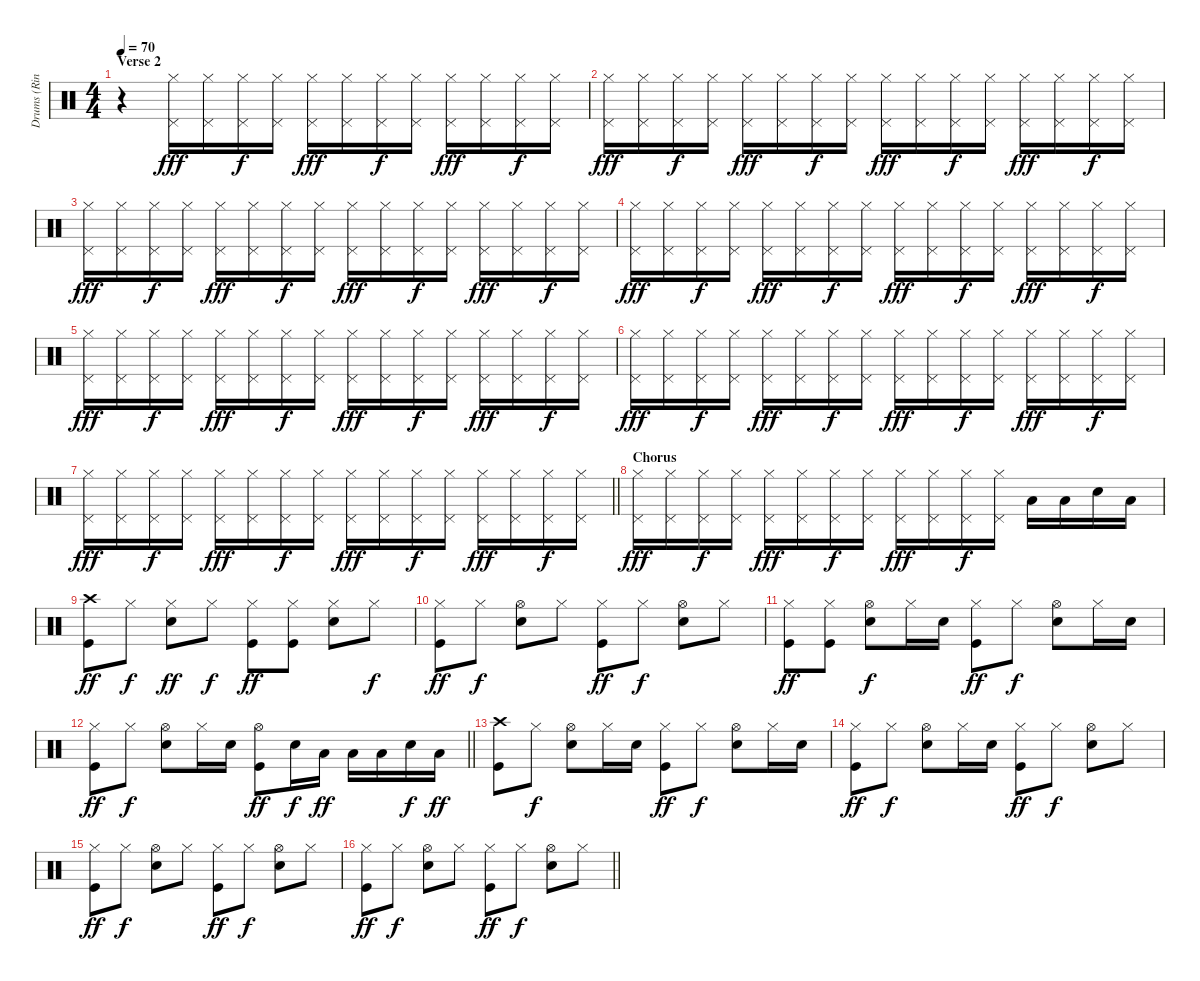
\track ("Drums (Ringo Starr)" "Drums (Rin") {instrument percussion}
\staff {score}
\articulation defaults
\ts (4 4)
\section ("" "Verse 2")
\tempo 70
\clef neutral
\ks c
r.4{dy fff} ("Pedal Hi-Hat (hit)" "Hi-Hat (closed)").16{volume 16} ("Pedal Hi-Hat (hit)" "Hi-Hat (closed)").16{volume 11} ("Hi-Hat (closed)" "Pedal Hi-Hat (hit)").16{dy f volume 6} ("Hi-Hat (closed)" "Pedal Hi-Hat (hit)").16{volume 5} ("Pedal Hi-Hat (hit)" "Hi-Hat (closed)").16{dy fff} ("Pedal Hi-Hat (hit)" "Hi-Hat (closed)").16 ("Hi-Hat (closed)" "Pedal Hi-Hat (hit)").16{dy f} ("Hi-Hat (closed)" "Pedal Hi-Hat (hit)").16 ("Pedal Hi-Hat (hit)" "Hi-Hat (closed)").16{dy fff volume 16} ("Pedal Hi-Hat (hit)" "Hi-Hat (closed)").16{volume 11} ("Hi-Hat (closed)" "Pedal Hi-Hat (hit)").16{dy f volume 6} ("Hi-Hat (closed)" "Pedal Hi-Hat (hit)").16{volume 5} |
("Pedal Hi-Hat (hit)" "Hi-Hat (closed)").16{dy fff} ("Pedal Hi-Hat (hit)" "Hi-Hat (closed)").16 ("Hi-Hat (closed)" "Pedal Hi-Hat (hit)").16{dy f} ("Hi-Hat (closed)" "Pedal Hi-Hat (hit)").16 ("Pedal Hi-Hat (hit)" "Hi-Hat (closed)").16{dy fff volume 16} ("Pedal Hi-Hat (hit)" "Hi-Hat (closed)").16{volume 11} ("Hi-Hat (closed)" "Pedal Hi-Hat (hit)").16{dy f volume 6} ("Hi-Hat (closed)" "Pedal Hi-Hat (hit)").16{volume 5} ("Pedal Hi-Hat (hit)" "Hi-Hat (closed)").16{dy fff} ("Pedal Hi-Hat (hit)" "Hi-Hat (closed)").16 ("Hi-Hat (closed)" "Pedal Hi-Hat (hit)").16{dy f} ("Hi-Hat (closed)" "Pedal Hi-Hat (hit)").16 ("Pedal Hi-Hat (hit)" "Hi-Hat (closed)").16{dy fff volume 16} ("Pedal Hi-Hat (hit)" "Hi-Hat (closed)").16{volume 11} ("Hi-Hat (closed)" "Pedal Hi-Hat (hit)").16{dy f volume 6} ("Hi-Hat (closed)" "Pedal Hi-Hat (hit)").16{volume 5} |
("Pedal Hi-Hat (hit)" "Hi-Hat (closed)").16{dy fff} ("Pedal Hi-Hat (hit)" "Hi-Hat (closed)").16 ("Hi-Hat (closed)" "Pedal Hi-Hat (hit)").16{dy f} ("Hi-Hat (closed)" "Pedal Hi-Hat (hit)").16 ("Pedal Hi-Hat (hit)" "Hi-Hat (closed)").16{dy fff volume 16} ("Pedal Hi-Hat (hit)" "Hi-Hat (closed)").16{volume 11} ("Hi-Hat (closed)" "Pedal Hi-Hat (hit)").16{dy f volume 6} ("Hi-Hat (closed)" "Pedal Hi-Hat (hit)").16{volume 5} ("Pedal Hi-Hat (hit)" "Hi-Hat (closed)").16{dy fff} ("Pedal Hi-Hat (hit)" "Hi-Hat (closed)").16 ("Hi-Hat (closed)" "Pedal Hi-Hat (hit)").16{dy f} ("Hi-Hat (closed)" "Pedal Hi-Hat (hit)").16 ("Pedal Hi-Hat (hit)" "Hi-Hat (closed)").16{dy fff volume 16} ("Pedal Hi-Hat (hit)" "Hi-Hat (closed)").16{volume 11} ("Hi-Hat (closed)" "Pedal Hi-Hat (hit)").16{dy f volume 6} ("Hi-Hat (closed)" "Pedal Hi-Hat (hit)").16{volume 5} |
("Pedal Hi-Hat (hit)" "Hi-Hat (closed)").16{dy fff} ("Pedal Hi-Hat (hit)" "Hi-Hat (closed)").16 ("Hi-Hat (closed)" "Pedal Hi-Hat (hit)").16{dy f} ("Hi-Hat (closed)" "Pedal Hi-Hat (hit)").16 ("Pedal Hi-Hat (hit)" "Hi-Hat (closed)").16{dy fff volume 16} ("Pedal Hi-Hat (hit)" "Hi-Hat (closed)").16{volume 11} ("Hi-Hat (closed)" "Pedal Hi-Hat (hit)").16{dy f volume 6} ("Hi-Hat (closed)" "Pedal Hi-Hat (hit)").16{volume 5} ("Pedal Hi-Hat (hit)" "Hi-Hat (closed)").16{dy fff} ("Pedal Hi-Hat (hit)" "Hi-Hat (closed)").16 ("Hi-Hat (closed)" "Pedal Hi-Hat (hit)").16{dy f} ("Hi-Hat (closed)" "Pedal Hi-Hat (hit)").16 ("Pedal Hi-Hat (hit)" "Hi-Hat (closed)").16{dy fff volume 16} ("Pedal Hi-Hat (hit)" "Hi-Hat (closed)").16{volume 11} ("Hi-Hat (closed)" "Pedal Hi-Hat (hit)").16{dy f volume 6} ("Hi-Hat (closed)" "Pedal Hi-Hat (hit)").16{volume 5} |
("Pedal Hi-Hat (hit)" "Hi-Hat (closed)").16{dy fff} ("Pedal Hi-Hat (hit)" "Hi-Hat (closed)").16 ("Hi-Hat (closed)" "Pedal Hi-Hat (hit)").16{dy f} ("Hi-Hat (closed)" "Pedal Hi-Hat (hit)").16 ("Pedal Hi-Hat (hit)" "Hi-Hat (closed)").16{dy fff volume 16} ("Pedal Hi-Hat (hit)" "Hi-Hat (closed)").16{volume 11} ("Hi-Hat (closed)" "Pedal Hi-Hat (hit)").16{dy f volume 6} ("Hi-Hat (closed)" "Pedal Hi-Hat (hit)").16{volume 5} ("Pedal Hi-Hat (hit)" "Hi-Hat (closed)").16{dy fff} ("Pedal Hi-Hat (hit)" "Hi-Hat (closed)").16 ("Hi-Hat (closed)" "Pedal Hi-Hat (hit)").16{dy f} ("Hi-Hat (closed)" "Pedal Hi-Hat (hit)").16 ("Pedal Hi-Hat (hit)" "Hi-Hat (closed)").16{dy fff volume 16} ("Pedal Hi-Hat (hit)" "Hi-Hat (closed)").16{volume 11} ("Hi-Hat (closed)" "Pedal Hi-Hat (hit)").16{dy f volume 6} ("Hi-Hat (closed)" "Pedal Hi-Hat (hit)").16{volume 5} |
("Pedal Hi-Hat (hit)" "Hi-Hat (closed)").16{dy fff} ("Pedal Hi-Hat (hit)" "Hi-Hat (closed)").16 ("Hi-Hat (closed)" "Pedal Hi-Hat (hit)").16{dy f} ("Hi-Hat (closed)" "Pedal Hi-Hat (hit)").16 ("Pedal Hi-Hat (hit)" "Hi-Hat (closed)").16{dy fff volume 16} ("Pedal Hi-Hat (hit)" "Hi-Hat (closed)").16{volume 11} ("Hi-Hat (closed)" "Pedal Hi-Hat (hit)").16{dy f volume 6} ("Hi-Hat (closed)" "Pedal Hi-Hat (hit)").16{volume 5} ("Pedal Hi-Hat (hit)" "Hi-Hat (closed)").16{dy fff} ("Pedal Hi-Hat (hit)" "Hi-Hat (closed)").16 ("Hi-Hat (closed)" "Pedal Hi-Hat (hit)").16{dy f} ("Hi-Hat (closed)" "Pedal Hi-Hat (hit)").16 ("Pedal Hi-Hat (hit)" "Hi-Hat (closed)").16{dy fff volume 16} ("Pedal Hi-Hat (hit)" "Hi-Hat (closed)").16{volume 11} ("Hi-Hat (closed)" "Pedal Hi-Hat (hit)").16{dy f volume 6} ("Hi-Hat (closed)" "Pedal Hi-Hat (hit)").16{volume 5} |
\barLineRight lightlight
("Pedal Hi-Hat (hit)" "Hi-Hat (closed)").16{dy fff} ("Pedal Hi-Hat (hit)" "Hi-Hat (closed)").16 ("Hi-Hat (closed)" "Pedal Hi-Hat (hit)").16{dy f} ("Hi-Hat (closed)" "Pedal Hi-Hat (hit)").16 ("Pedal Hi-Hat (hit)" "Hi-Hat (closed)").16{dy fff volume 16} ("Pedal Hi-Hat (hit)" "Hi-Hat (closed)").16{volume 11} ("Hi-Hat (closed)" "Pedal Hi-Hat (hit)").16{dy f volume 6} ("Hi-Hat (closed)" "Pedal Hi-Hat (hit)").16{volume 5} ("Pedal Hi-Hat (hit)" "Hi-Hat (closed)").16{dy fff} ("Pedal Hi-Hat (hit)" "Hi-Hat (closed)").16 ("Hi-Hat (closed)" "Pedal Hi-Hat (hit)").16{dy f} ("Hi-Hat (closed)" "Pedal Hi-Hat (hit)").16 ("Pedal Hi-Hat (hit)" "Hi-Hat (closed)").16{dy fff volume 16} ("Pedal Hi-Hat (hit)" "Hi-Hat (closed)").16{volume 11} ("Hi-Hat (closed)" "Pedal Hi-Hat (hit)").16{dy f volume 6} ("Hi-Hat (closed)" "Pedal Hi-Hat (hit)").16{volume 5} |
\section ("" "Chorus")
("Pedal Hi-Hat (hit)" "Hi-Hat (closed)").16{dy fff} ("Pedal Hi-Hat (hit)" "Hi-Hat (closed)").16 ("Hi-Hat (closed)" "Pedal Hi-Hat (hit)").16{dy f} ("Hi-Hat (closed)" "Pedal Hi-Hat (hit)").16 ("Pedal Hi-Hat (hit)" "Hi-Hat (closed)").16{dy fff volume 16} ("Pedal Hi-Hat (hit)" "Hi-Hat (closed)").16{volume 11} ("Hi-Hat (closed)" "Pedal Hi-Hat (hit)").16{dy f volume 6} ("Hi-Hat (closed)" "Pedal Hi-Hat (hit)").16{volume 5} ("Pedal Hi-Hat (hit)" "Hi-Hat (closed)").16{dy fff} ("Pedal Hi-Hat (hit)" "Hi-Hat (closed)").16 ("Hi-Hat (closed)" "Pedal Hi-Hat (hit)").16{dy f} ("Hi-Hat (closed)" "Pedal Hi-Hat (hit)").16 "Low Tom (hit)".16{volume 16} "Low Tom (hit)".16 "Snare (hit) 2".16 "Low Tom (hit)".16 |
("Kick (hit)" "Crash high (hit)").8{dy ff} "Hi-Hat (closed)".8{dy f} ("Hi-Hat (closed)" "Snare (hit) 2").8{dy ff} "Hi-Hat (closed)".8{dy f} ("Hi-Hat (closed)" "Kick (hit)").8{dy ff} ("Hi-Hat (closed)" "Kick (hit)").8 ("Hi-Hat (closed)" "Snare (hit) 2").8 "Hi-Hat (closed)".8{dy f} |
("Hi-Hat (closed)" "Kick (hit)").8{dy ff} "Hi-Hat (closed)".8{dy f} ("Hi-Hat (open)" "Snare (hit) 2").8 "Hi-Hat (closed)".8 ("Hi-Hat (closed)" "Kick (hit)").8{dy ff} "Hi-Hat (closed)".8{dy f} ("Hi-Hat (open)" "Snare (hit) 2").8 "Hi-Hat (closed)".8 |
("Hi-Hat (closed)" "Kick (hit)").8{dy ff} ("Hi-Hat (closed)" "Kick (hit)").8 ("Hi-Hat (open)" "Snare (hit) 2").8{dy f} "Hi-Hat (closed)".16 "Snare (hit) 2".16 ("Hi-Hat (closed)" "Kick (hit)").8{dy ff} "Hi-Hat (closed)".8{dy f} ("Hi-Hat (open)" "Snare (hit) 2").8 "Hi-Hat (closed)".16 "Snare (hit) 2".16 |
\barLineRight lightlight
("Hi-Hat (closed)" "Kick (hit)").8{dy ff} "Hi-Hat (closed)".8{dy f} ("Hi-Hat (open)" "Snare (hit) 2").8 "Hi-Hat (closed)".16 "Snare (hit) 2".16 ("Hi-Hat (open)" "Kick (hit)").8{dy ff} "Snare (hit) 2".16{dy f} "Low Tom (hit)".16{dy ff} "Low Tom (hit)".16 "Low Tom (hit)".16 "Snare (hit) 2".16{dy f} "Low Tom (hit)".16{dy ff} |
("Kick (hit)" "Crash high (hit)").8 "Hi-Hat (closed)".8{dy f} ("Hi-Hat (open)" "Snare (hit) 2").8 "Hi-Hat (closed)".16 "Snare (hit) 2".16 ("Hi-Hat (closed)" "Kick (hit)").8{dy ff} "Hi-Hat (closed)".8{dy f} ("Hi-Hat (open)" "Snare (hit) 2").8 "Hi-Hat (closed)".16 "Snare (hit) 2".16 |
("Hi-Hat (closed)" "Kick (hit)").8{dy ff} "Hi-Hat (closed)".8{dy f} ("Hi-Hat (open)" "Snare (hit) 2").8 "Hi-Hat (closed)".16 "Snare (hit) 2".16 ("Hi-Hat (closed)" "Kick (hit)").8{dy ff} "Hi-Hat (closed)".8{dy f} ("Hi-Hat (open)" "Snare (hit) 2").8 "Hi-Hat (closed)".8 |
("Hi-Hat (closed)" "Kick (hit)").8{dy ff} "Hi-Hat (closed)".8{dy f} ("Hi-Hat (open)" "Snare (hit) 2").8 "Hi-Hat (closed)".8 ("Hi-Hat (closed)" "Kick (hit)").8{dy ff} "Hi-Hat (closed)".8{dy f} ("Hi-Hat (open)" "Snare (hit) 2").8 "Hi-Hat (closed)".8 |
\barLineRight lightlight
("Hi-Hat (closed)" "Kick (hit)").8{dy ff} "Hi-Hat (closed)".8{dy f} ("Hi-Hat (open)" "Snare (hit) 2").8 "Hi-Hat (closed)".8 ("Hi-Hat (closed)" "Kick (hit)").8{dy ff} "Hi-Hat (closed)".8{dy f} ("Hi-Hat (open)" "Snare (hit) 2").8 "Hi-Hat (closed)".8
